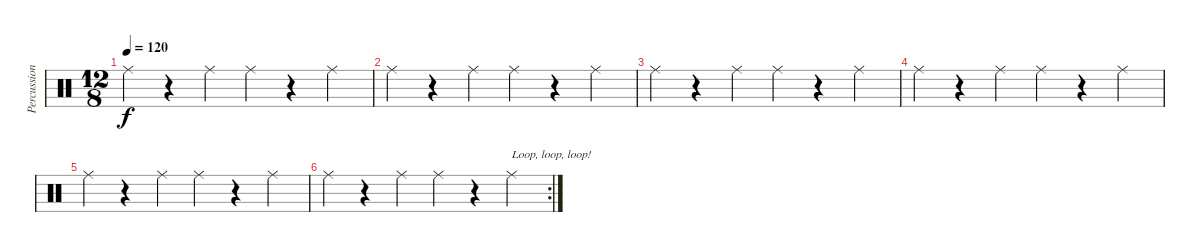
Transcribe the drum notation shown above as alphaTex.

\track ("Percussion" "Percussion") {instrument percussion}
\staff {score}
\articulation defaults
\ts (12 8)
\tempo 120
\clef neutral
\ks c "Ride (middle)".4{dy f}
r.4 "Ride (middle)".4 "Ride (middle)".4 r.4 "Ride (middle)".4 |
"Ride (middle)".4 r.4 "Ride (middle)".4 "Ride (middle)".4 r.4 "Ride (middle)".4 |
"Ride (middle)".4 r.4 "Ride (middle)".4 "Ride (middle)".4 r.4 "Ride (middle)".4 |
"Ride (middle)".4 r.4 "Ride (middle)".4 "Ride (middle)".4 r.4 "Ride (middle)".4 |
"Ride (middle)".4 r.4 "Ride (middle)".4 "Ride (middle)".4 r.4 "Ride (middle)".4 |
\rc 2 "Ride (middle)".4
r.4 "Ride (middle)".4 "Ride (middle)".4 r.4 "Ride (middle)".4{txt "Loop, loop, loop!"}
